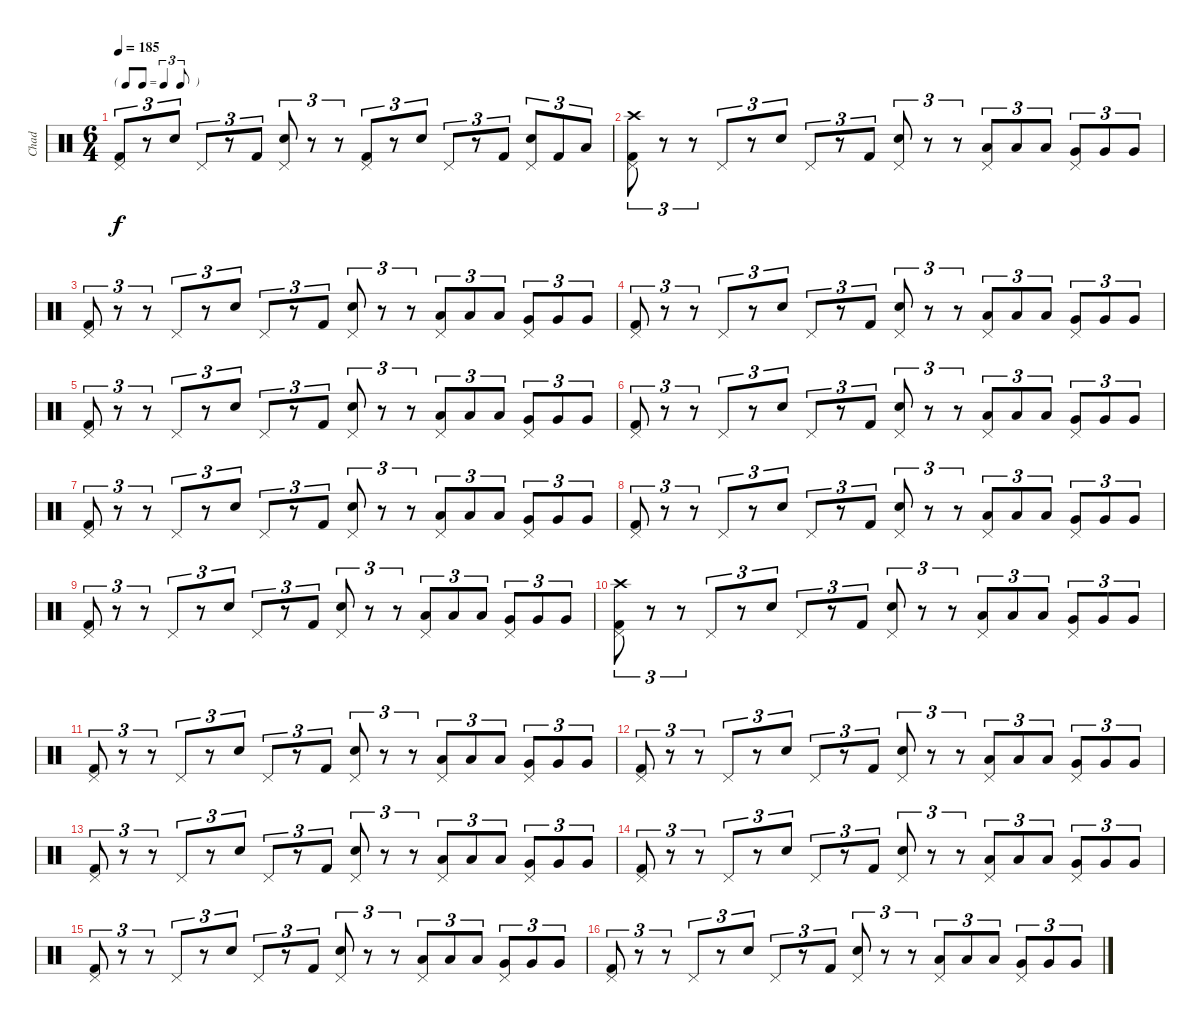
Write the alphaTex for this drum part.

\track ("Chad" "Chad") {instrument percussion}
\staff {score}
\articulation defaults
\ts (6 4)
\tf triplet8th
\tempo 185
\clef neutral
\ks c
("Kick (hit) 2" "Pedal Hi-Hat (hit)").8{tu (3 2) dy f} r.8{tu (3 2)} "Electric Snare (hit)".8{tu (3 2)} "Pedal Hi-Hat (hit)".8{tu (3 2)} r.8{tu (3 2)} "Kick (hit) 2".8{tu (3 2)} ("Electric Snare (hit)" "Pedal Hi-Hat (hit)").8{tu (3 2)} r.8{tu (3 2)} r.8{tu (3 2)} ("Kick (hit) 2" "Pedal Hi-Hat (hit)").8{tu (3 2)} r.8{tu (3 2)} "Electric Snare (hit)".8{tu (3 2)} "Pedal Hi-Hat (hit)".8{tu (3 2)} r.8{tu (3 2)} "Kick (hit) 2".8{tu (3 2)} ("Electric Snare (hit)" "Pedal Hi-Hat (hit)").8{tu (3 2)} "Kick (hit) 2".8{tu (3 2)} "Low Tom (hit)".8{tu (3 2)} |
("Kick (hit) 2" "Pedal Hi-Hat (hit)" "Crash high (hit)").8{tu (3 2)} r.8{tu (3 2)} r.8{tu (3 2)} "Pedal Hi-Hat (hit)".8{tu (3 2)} r.8{tu (3 2)} "Electric Snare (hit)".8{tu (3 2)} "Pedal Hi-Hat (hit)".8{tu (3 2)} r.8{tu (3 2)} "Kick (hit) 2".8{tu (3 2)} ("Electric Snare (hit)" "Pedal Hi-Hat (hit)").8{tu (3 2)} r.8{tu (3 2)} r.8{tu (3 2)} ("Low Tom (hit)" "Pedal Hi-Hat (hit)").8{tu (3 2)} "Low Tom (hit)".8{tu (3 2)} "Low Tom (hit)".8{tu (3 2)} ("Very Low Tom (hit)" "Pedal Hi-Hat (hit)").8{tu (3 2)} "Very Low Tom (hit)".8{tu (3 2)} "Very Low Tom (hit)".8{tu (3 2)} |
("Kick (hit) 2" "Pedal Hi-Hat (hit)").8{tu (3 2)} r.8{tu (3 2)} r.8{tu (3 2)} "Pedal Hi-Hat (hit)".8{tu (3 2)} r.8{tu (3 2)} "Electric Snare (hit)".8{tu (3 2)} "Pedal Hi-Hat (hit)".8{tu (3 2)} r.8{tu (3 2)} "Kick (hit) 2".8{tu (3 2)} ("Electric Snare (hit)" "Pedal Hi-Hat (hit)").8{tu (3 2)} r.8{tu (3 2)} r.8{tu (3 2)} ("Low Tom (hit)" "Pedal Hi-Hat (hit)").8{tu (3 2)} "Low Tom (hit)".8{tu (3 2)} "Low Tom (hit)".8{tu (3 2)} ("Very Low Tom (hit)" "Pedal Hi-Hat (hit)").8{tu (3 2)} "Very Low Tom (hit)".8{tu (3 2)} "Very Low Tom (hit)".8{tu (3 2)} |
("Kick (hit) 2" "Pedal Hi-Hat (hit)").8{tu (3 2)} r.8{tu (3 2)} r.8{tu (3 2)} "Pedal Hi-Hat (hit)".8{tu (3 2)} r.8{tu (3 2)} "Electric Snare (hit)".8{tu (3 2)} "Pedal Hi-Hat (hit)".8{tu (3 2)} r.8{tu (3 2)} "Kick (hit) 2".8{tu (3 2)} ("Electric Snare (hit)" "Pedal Hi-Hat (hit)").8{tu (3 2)} r.8{tu (3 2)} r.8{tu (3 2)} ("Low Tom (hit)" "Pedal Hi-Hat (hit)").8{tu (3 2)} "Low Tom (hit)".8{tu (3 2)} "Low Tom (hit)".8{tu (3 2)} ("Very Low Tom (hit)" "Pedal Hi-Hat (hit)").8{tu (3 2)} "Very Low Tom (hit)".8{tu (3 2)} "Very Low Tom (hit)".8{tu (3 2)} |
("Kick (hit) 2" "Pedal Hi-Hat (hit)").8{tu (3 2)} r.8{tu (3 2)} r.8{tu (3 2)} "Pedal Hi-Hat (hit)".8{tu (3 2)} r.8{tu (3 2)} "Electric Snare (hit)".8{tu (3 2)} "Pedal Hi-Hat (hit)".8{tu (3 2)} r.8{tu (3 2)} "Kick (hit) 2".8{tu (3 2)} ("Electric Snare (hit)" "Pedal Hi-Hat (hit)").8{tu (3 2)} r.8{tu (3 2)} r.8{tu (3 2)} ("Low Tom (hit)" "Pedal Hi-Hat (hit)").8{tu (3 2)} "Low Tom (hit)".8{tu (3 2)} "Low Tom (hit)".8{tu (3 2)} ("Very Low Tom (hit)" "Pedal Hi-Hat (hit)").8{tu (3 2)} "Very Low Tom (hit)".8{tu (3 2)} "Very Low Tom (hit)".8{tu (3 2)} |
("Kick (hit) 2" "Pedal Hi-Hat (hit)").8{tu (3 2)} r.8{tu (3 2)} r.8{tu (3 2)} "Pedal Hi-Hat (hit)".8{tu (3 2)} r.8{tu (3 2)} "Electric Snare (hit)".8{tu (3 2)} "Pedal Hi-Hat (hit)".8{tu (3 2)} r.8{tu (3 2)} "Kick (hit) 2".8{tu (3 2)} ("Electric Snare (hit)" "Pedal Hi-Hat (hit)").8{tu (3 2)} r.8{tu (3 2)} r.8{tu (3 2)} ("Low Tom (hit)" "Pedal Hi-Hat (hit)").8{tu (3 2)} "Low Tom (hit)".8{tu (3 2)} "Low Tom (hit)".8{tu (3 2)} ("Very Low Tom (hit)" "Pedal Hi-Hat (hit)").8{tu (3 2)} "Very Low Tom (hit)".8{tu (3 2)} "Very Low Tom (hit)".8{tu (3 2)} |
("Kick (hit) 2" "Pedal Hi-Hat (hit)").8{tu (3 2)} r.8{tu (3 2)} r.8{tu (3 2)} "Pedal Hi-Hat (hit)".8{tu (3 2)} r.8{tu (3 2)} "Electric Snare (hit)".8{tu (3 2)} "Pedal Hi-Hat (hit)".8{tu (3 2)} r.8{tu (3 2)} "Kick (hit) 2".8{tu (3 2)} ("Electric Snare (hit)" "Pedal Hi-Hat (hit)").8{tu (3 2)} r.8{tu (3 2)} r.8{tu (3 2)} ("Low Tom (hit)" "Pedal Hi-Hat (hit)").8{tu (3 2)} "Low Tom (hit)".8{tu (3 2)} "Low Tom (hit)".8{tu (3 2)} ("Very Low Tom (hit)" "Pedal Hi-Hat (hit)").8{tu (3 2)} "Very Low Tom (hit)".8{tu (3 2)} "Very Low Tom (hit)".8{tu (3 2)} |
("Kick (hit) 2" "Pedal Hi-Hat (hit)").8{tu (3 2)} r.8{tu (3 2)} r.8{tu (3 2)} "Pedal Hi-Hat (hit)".8{tu (3 2)} r.8{tu (3 2)} "Electric Snare (hit)".8{tu (3 2)} "Pedal Hi-Hat (hit)".8{tu (3 2)} r.8{tu (3 2)} "Kick (hit) 2".8{tu (3 2)} ("Electric Snare (hit)" "Pedal Hi-Hat (hit)").8{tu (3 2)} r.8{tu (3 2)} r.8{tu (3 2)} ("Low Tom (hit)" "Pedal Hi-Hat (hit)").8{tu (3 2)} "Low Tom (hit)".8{tu (3 2)} "Low Tom (hit)".8{tu (3 2)} ("Very Low Tom (hit)" "Pedal Hi-Hat (hit)").8{tu (3 2)} "Very Low Tom (hit)".8{tu (3 2)} "Very Low Tom (hit)".8{tu (3 2)} |
("Kick (hit) 2" "Pedal Hi-Hat (hit)").8{tu (3 2)} r.8{tu (3 2)} r.8{tu (3 2)} "Pedal Hi-Hat (hit)".8{tu (3 2)} r.8{tu (3 2)} "Electric Snare (hit)".8{tu (3 2)} "Pedal Hi-Hat (hit)".8{tu (3 2)} r.8{tu (3 2)} "Kick (hit) 2".8{tu (3 2)} ("Electric Snare (hit)" "Pedal Hi-Hat (hit)").8{tu (3 2)} r.8{tu (3 2)} r.8{tu (3 2)} ("Low Tom (hit)" "Pedal Hi-Hat (hit)").8{tu (3 2)} "Low Tom (hit)".8{tu (3 2)} "Low Tom (hit)".8{tu (3 2)} ("Very Low Tom (hit)" "Pedal Hi-Hat (hit)").8{tu (3 2)} "Very Low Tom (hit)".8{tu (3 2)} "Very Low Tom (hit)".8{tu (3 2)} |
("Kick (hit) 2" "Pedal Hi-Hat (hit)" "Crash high (hit)").8{tu (3 2)} r.8{tu (3 2)} r.8{tu (3 2)} "Pedal Hi-Hat (hit)".8{tu (3 2)} r.8{tu (3 2)} "Electric Snare (hit)".8{tu (3 2)} "Pedal Hi-Hat (hit)".8{tu (3 2)} r.8{tu (3 2)} "Kick (hit) 2".8{tu (3 2)} ("Electric Snare (hit)" "Pedal Hi-Hat (hit)").8{tu (3 2)} r.8{tu (3 2)} r.8{tu (3 2)} ("Low Tom (hit)" "Pedal Hi-Hat (hit)").8{tu (3 2)} "Low Tom (hit)".8{tu (3 2)} "Low Tom (hit)".8{tu (3 2)} ("Very Low Tom (hit)" "Pedal Hi-Hat (hit)").8{tu (3 2)} "Very Low Tom (hit)".8{tu (3 2)} "Very Low Tom (hit)".8{tu (3 2)} |
("Kick (hit) 2" "Pedal Hi-Hat (hit)").8{tu (3 2)} r.8{tu (3 2)} r.8{tu (3 2)} "Pedal Hi-Hat (hit)".8{tu (3 2)} r.8{tu (3 2)} "Electric Snare (hit)".8{tu (3 2)} "Pedal Hi-Hat (hit)".8{tu (3 2)} r.8{tu (3 2)} "Kick (hit) 2".8{tu (3 2)} ("Electric Snare (hit)" "Pedal Hi-Hat (hit)").8{tu (3 2)} r.8{tu (3 2)} r.8{tu (3 2)} ("Low Tom (hit)" "Pedal Hi-Hat (hit)").8{tu (3 2)} "Low Tom (hit)".8{tu (3 2)} "Low Tom (hit)".8{tu (3 2)} ("Very Low Tom (hit)" "Pedal Hi-Hat (hit)").8{tu (3 2)} "Very Low Tom (hit)".8{tu (3 2)} "Very Low Tom (hit)".8{tu (3 2)} |
("Kick (hit) 2" "Pedal Hi-Hat (hit)").8{tu (3 2)} r.8{tu (3 2)} r.8{tu (3 2)} "Pedal Hi-Hat (hit)".8{tu (3 2)} r.8{tu (3 2)} "Electric Snare (hit)".8{tu (3 2)} "Pedal Hi-Hat (hit)".8{tu (3 2)} r.8{tu (3 2)} "Kick (hit) 2".8{tu (3 2)} ("Electric Snare (hit)" "Pedal Hi-Hat (hit)").8{tu (3 2)} r.8{tu (3 2)} r.8{tu (3 2)} ("Low Tom (hit)" "Pedal Hi-Hat (hit)").8{tu (3 2)} "Low Tom (hit)".8{tu (3 2)} "Low Tom (hit)".8{tu (3 2)} ("Very Low Tom (hit)" "Pedal Hi-Hat (hit)").8{tu (3 2)} "Very Low Tom (hit)".8{tu (3 2)} "Very Low Tom (hit)".8{tu (3 2)} |
("Kick (hit) 2" "Pedal Hi-Hat (hit)").8{tu (3 2)} r.8{tu (3 2)} r.8{tu (3 2)} "Pedal Hi-Hat (hit)".8{tu (3 2)} r.8{tu (3 2)} "Electric Snare (hit)".8{tu (3 2)} "Pedal Hi-Hat (hit)".8{tu (3 2)} r.8{tu (3 2)} "Kick (hit) 2".8{tu (3 2)} ("Electric Snare (hit)" "Pedal Hi-Hat (hit)").8{tu (3 2)} r.8{tu (3 2)} r.8{tu (3 2)} ("Low Tom (hit)" "Pedal Hi-Hat (hit)").8{tu (3 2)} "Low Tom (hit)".8{tu (3 2)} "Low Tom (hit)".8{tu (3 2)} ("Very Low Tom (hit)" "Pedal Hi-Hat (hit)").8{tu (3 2)} "Very Low Tom (hit)".8{tu (3 2)} "Very Low Tom (hit)".8{tu (3 2)} |
("Kick (hit) 2" "Pedal Hi-Hat (hit)").8{tu (3 2)} r.8{tu (3 2)} r.8{tu (3 2)} "Pedal Hi-Hat (hit)".8{tu (3 2)} r.8{tu (3 2)} "Electric Snare (hit)".8{tu (3 2)} "Pedal Hi-Hat (hit)".8{tu (3 2)} r.8{tu (3 2)} "Kick (hit) 2".8{tu (3 2)} ("Electric Snare (hit)" "Pedal Hi-Hat (hit)").8{tu (3 2)} r.8{tu (3 2)} r.8{tu (3 2)} ("Low Tom (hit)" "Pedal Hi-Hat (hit)").8{tu (3 2)} "Low Tom (hit)".8{tu (3 2)} "Low Tom (hit)".8{tu (3 2)} ("Very Low Tom (hit)" "Pedal Hi-Hat (hit)").8{tu (3 2)} "Very Low Tom (hit)".8{tu (3 2)} "Very Low Tom (hit)".8{tu (3 2)} |
("Kick (hit) 2" "Pedal Hi-Hat (hit)").8{tu (3 2)} r.8{tu (3 2)} r.8{tu (3 2)} "Pedal Hi-Hat (hit)".8{tu (3 2)} r.8{tu (3 2)} "Electric Snare (hit)".8{tu (3 2)} "Pedal Hi-Hat (hit)".8{tu (3 2)} r.8{tu (3 2)} "Kick (hit) 2".8{tu (3 2)} ("Electric Snare (hit)" "Pedal Hi-Hat (hit)").8{tu (3 2)} r.8{tu (3 2)} r.8{tu (3 2)} ("Low Tom (hit)" "Pedal Hi-Hat (hit)").8{tu (3 2)} "Low Tom (hit)".8{tu (3 2)} "Low Tom (hit)".8{tu (3 2)} ("Very Low Tom (hit)" "Pedal Hi-Hat (hit)").8{tu (3 2)} "Very Low Tom (hit)".8{tu (3 2)} "Very Low Tom (hit)".8{tu (3 2)} |
("Kick (hit) 2" "Pedal Hi-Hat (hit)").8{tu (3 2)} r.8{tu (3 2)} r.8{tu (3 2)} "Pedal Hi-Hat (hit)".8{tu (3 2)} r.8{tu (3 2)} "Electric Snare (hit)".8{tu (3 2)} "Pedal Hi-Hat (hit)".8{tu (3 2)} r.8{tu (3 2)} "Kick (hit) 2".8{tu (3 2)} ("Electric Snare (hit)" "Pedal Hi-Hat (hit)").8{tu (3 2)} r.8{tu (3 2)} r.8{tu (3 2)} ("Low Tom (hit)" "Pedal Hi-Hat (hit)").8{tu (3 2)} "Low Tom (hit)".8{tu (3 2)} "Low Tom (hit)".8{tu (3 2)} ("Very Low Tom (hit)" "Pedal Hi-Hat (hit)").8{tu (3 2)} "Very Low Tom (hit)".8{tu (3 2)} "Very Low Tom (hit)".8{tu (3 2)}
